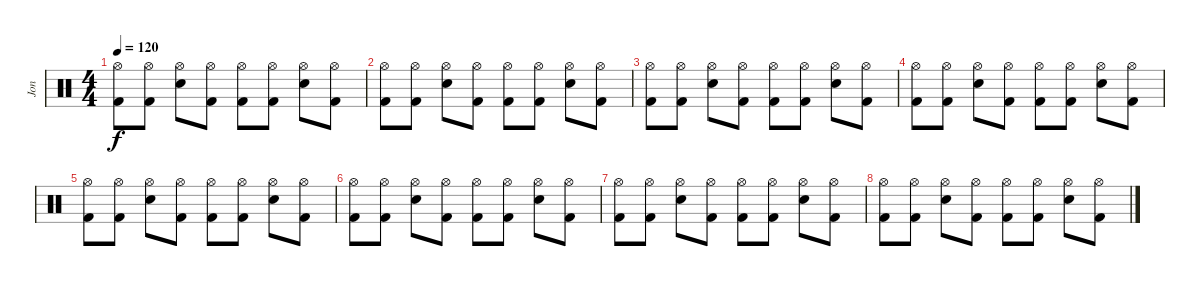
\track ("Jon" "Jon") {instrument percussion}
\staff {score}
\articulation defaults
\ts (4 4)
\tempo 120
\clef neutral
\ks c
("Hi-Hat (open)" "Kick (hit) 2").8{dy f volume 8} ("Hi-Hat (open)" "Kick (hit) 2").8 ("Hi-Hat (open)" "Electric Snare (hit)").8 ("Hi-Hat (open)" "Kick (hit) 2").8 ("Hi-Hat (open)" "Kick (hit) 2").8 ("Hi-Hat (open)" "Kick (hit) 2").8 ("Hi-Hat (open)" "Electric Snare (hit)").8 ("Hi-Hat (open)" "Kick (hit) 2").8 |
("Hi-Hat (open)" "Kick (hit) 2").8 ("Hi-Hat (open)" "Kick (hit) 2").8 ("Hi-Hat (open)" "Electric Snare (hit)").8 ("Hi-Hat (open)" "Kick (hit) 2").8 ("Hi-Hat (open)" "Kick (hit) 2").8 ("Hi-Hat (open)" "Kick (hit) 2").8 ("Hi-Hat (open)" "Electric Snare (hit)").8 ("Hi-Hat (open)" "Kick (hit) 2").8 |
("Hi-Hat (open)" "Kick (hit) 2").8 ("Hi-Hat (open)" "Kick (hit) 2").8 ("Hi-Hat (open)" "Electric Snare (hit)").8 ("Hi-Hat (open)" "Kick (hit) 2").8 ("Hi-Hat (open)" "Kick (hit) 2").8 ("Hi-Hat (open)" "Kick (hit) 2").8 ("Hi-Hat (open)" "Electric Snare (hit)").8 ("Hi-Hat (open)" "Kick (hit) 2").8 |
("Hi-Hat (open)" "Kick (hit) 2").8{volume 3} ("Hi-Hat (open)" "Kick (hit) 2").8 ("Hi-Hat (open)" "Electric Snare (hit)").8 ("Hi-Hat (open)" "Kick (hit) 2").8 ("Hi-Hat (open)" "Kick (hit) 2").8 ("Hi-Hat (open)" "Kick (hit) 2").8 ("Hi-Hat (open)" "Electric Snare (hit)").8 ("Hi-Hat (open)" "Kick (hit) 2").8 |
("Hi-Hat (open)" "Kick (hit) 2").8 ("Hi-Hat (open)" "Kick (hit) 2").8 ("Hi-Hat (open)" "Electric Snare (hit)").8 ("Hi-Hat (open)" "Kick (hit) 2").8 ("Hi-Hat (open)" "Kick (hit) 2").8 ("Hi-Hat (open)" "Kick (hit) 2").8 ("Hi-Hat (open)" "Electric Snare (hit)").8 ("Hi-Hat (open)" "Kick (hit) 2").8 |
("Hi-Hat (open)" "Kick (hit) 2").8 ("Hi-Hat (open)" "Kick (hit) 2").8 ("Hi-Hat (open)" "Electric Snare (hit)").8 ("Hi-Hat (open)" "Kick (hit) 2").8 ("Hi-Hat (open)" "Kick (hit) 2").8 ("Hi-Hat (open)" "Kick (hit) 2").8 ("Hi-Hat (open)" "Electric Snare (hit)").8 ("Hi-Hat (open)" "Kick (hit) 2").8 |
("Hi-Hat (open)" "Kick (hit) 2").8{volume 0} ("Hi-Hat (open)" "Kick (hit) 2").8 ("Hi-Hat (open)" "Electric Snare (hit)").8 ("Hi-Hat (open)" "Kick (hit) 2").8 ("Hi-Hat (open)" "Kick (hit) 2").8 ("Hi-Hat (open)" "Kick (hit) 2").8 ("Hi-Hat (open)" "Electric Snare (hit)").8 ("Hi-Hat (open)" "Kick (hit) 2").8 |
("Hi-Hat (open)" "Kick (hit) 2").8 ("Hi-Hat (open)" "Kick (hit) 2").8 ("Hi-Hat (open)" "Electric Snare (hit)").8 ("Hi-Hat (open)" "Kick (hit) 2").8 ("Hi-Hat (open)" "Kick (hit) 2").8 ("Hi-Hat (open)" "Kick (hit) 2").8 ("Hi-Hat (open)" "Electric Snare (hit)").8 ("Hi-Hat (open)" "Kick (hit) 2").8
